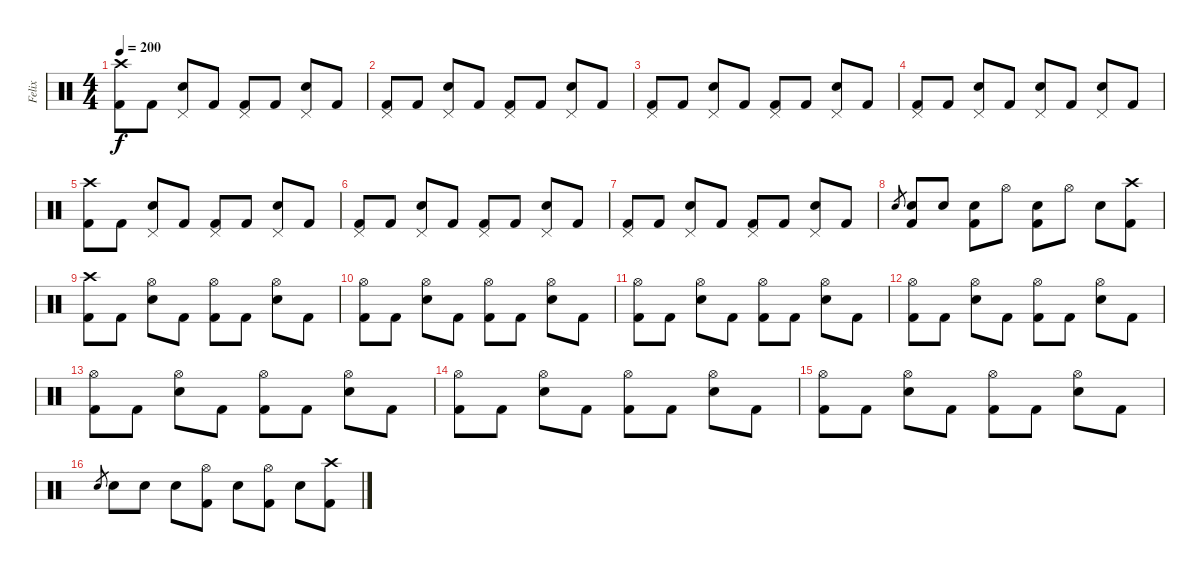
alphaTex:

\track ("Felix" "Felix") {instrument percussion}
\staff {score}
\articulation defaults
\ts (4 4)
\tempo 200
\clef neutral
\ks c
("Crash high (hit)" "Kick (hit) 2").8{dy f} "Kick (hit) 2".8 ("Pedal Hi-Hat (hit)" "Electric Snare (hit)").8 "Kick (hit) 2".8 ("Pedal Hi-Hat (hit)" "Kick (hit) 2").8 "Kick (hit) 2".8 ("Pedal Hi-Hat (hit)" "Electric Snare (hit)").8 "Kick (hit) 2".8 |
("Pedal Hi-Hat (hit)" "Kick (hit) 2").8 "Kick (hit) 2".8 ("Pedal Hi-Hat (hit)" "Electric Snare (hit)").8 "Kick (hit) 2".8 ("Pedal Hi-Hat (hit)" "Kick (hit) 2").8 "Kick (hit) 2".8 ("Pedal Hi-Hat (hit)" "Electric Snare (hit)").8 "Kick (hit) 2".8 |
("Pedal Hi-Hat (hit)" "Kick (hit) 2").8 "Kick (hit) 2".8 ("Pedal Hi-Hat (hit)" "Electric Snare (hit)").8 "Kick (hit) 2".8 ("Pedal Hi-Hat (hit)" "Kick (hit) 2").8 "Kick (hit) 2".8 ("Pedal Hi-Hat (hit)" "Electric Snare (hit)").8 "Kick (hit) 2".8 |
("Pedal Hi-Hat (hit)" "Kick (hit) 2").8 "Kick (hit) 2".8 ("Pedal Hi-Hat (hit)" "Electric Snare (hit)").8 "Kick (hit) 2".8 ("Pedal Hi-Hat (hit)" "Electric Snare (hit)").8 "Kick (hit) 2".8 ("Pedal Hi-Hat (hit)" "Electric Snare (hit)").8 "Kick (hit) 2".8 |
("Crash high (hit)" "Kick (hit) 2").8 "Kick (hit) 2".8 ("Pedal Hi-Hat (hit)" "Electric Snare (hit)").8 "Kick (hit) 2".8 ("Pedal Hi-Hat (hit)" "Kick (hit) 2").8 "Kick (hit) 2".8 ("Pedal Hi-Hat (hit)" "Electric Snare (hit)").8 "Kick (hit) 2".8 |
("Pedal Hi-Hat (hit)" "Kick (hit) 2").8 "Kick (hit) 2".8 ("Pedal Hi-Hat (hit)" "Electric Snare (hit)").8 "Kick (hit) 2".8 ("Pedal Hi-Hat (hit)" "Kick (hit) 2").8 "Kick (hit) 2".8 ("Pedal Hi-Hat (hit)" "Electric Snare (hit)").8 "Kick (hit) 2".8 |
("Pedal Hi-Hat (hit)" "Kick (hit) 2").8 "Kick (hit) 2".8 ("Pedal Hi-Hat (hit)" "Electric Snare (hit)").8 "Kick (hit) 2".8 ("Pedal Hi-Hat (hit)" "Kick (hit) 2").8 "Kick (hit) 2".8 ("Pedal Hi-Hat (hit)" "Electric Snare (hit)").8 "Kick (hit) 2".8 |
"Electric Snare (hit)".8{gr} ("Electric Snare (hit)" "Kick (hit) 2").8 "Electric Snare (hit)".8 ("Electric Snare (hit)" "Kick (hit) 2").8 "Hi-Hat (open)".8 ("Electric Snare (hit)" "Kick (hit) 2").8 "Hi-Hat (open)".8 "Electric Snare (hit)".8 ("Crash high (hit)" "Kick (hit) 2").8 |
("Crash high (hit)" "Kick (hit) 2").8 "Kick (hit) 2".8 ("Hi-Hat (open)" "Electric Snare (hit)").8 "Kick (hit) 2".8 ("Hi-Hat (open)" "Kick (hit) 2").8 "Kick (hit) 2".8 ("Hi-Hat (open)" "Electric Snare (hit)").8 "Kick (hit) 2".8 |
("Hi-Hat (open)" "Kick (hit) 2").8 "Kick (hit) 2".8 ("Hi-Hat (open)" "Electric Snare (hit)").8 "Kick (hit) 2".8 ("Hi-Hat (open)" "Kick (hit) 2").8 "Kick (hit) 2".8 ("Hi-Hat (open)" "Electric Snare (hit)").8 "Kick (hit) 2".8 |
("Hi-Hat (open)" "Kick (hit) 2").8 "Kick (hit) 2".8 ("Hi-Hat (open)" "Electric Snare (hit)").8 "Kick (hit) 2".8 ("Hi-Hat (open)" "Kick (hit) 2").8 "Kick (hit) 2".8 ("Hi-Hat (open)" "Electric Snare (hit)").8 "Kick (hit) 2".8 |
("Hi-Hat (open)" "Kick (hit) 2").8 "Kick (hit) 2".8 ("Hi-Hat (open)" "Electric Snare (hit)").8 "Kick (hit) 2".8 ("Hi-Hat (open)" "Kick (hit) 2").8 "Kick (hit) 2".8 ("Hi-Hat (open)" "Electric Snare (hit)").8 "Kick (hit) 2".8 |
("Hi-Hat (open)" "Kick (hit) 2").8 "Kick (hit) 2".8 ("Hi-Hat (open)" "Electric Snare (hit)").8 "Kick (hit) 2".8 ("Hi-Hat (open)" "Kick (hit) 2").8 "Kick (hit) 2".8 ("Hi-Hat (open)" "Electric Snare (hit)").8 "Kick (hit) 2".8 |
("Hi-Hat (open)" "Kick (hit) 2").8 "Kick (hit) 2".8 ("Hi-Hat (open)" "Electric Snare (hit)").8 "Kick (hit) 2".8 ("Hi-Hat (open)" "Kick (hit) 2").8 "Kick (hit) 2".8 ("Hi-Hat (open)" "Electric Snare (hit)").8 "Kick (hit) 2".8 |
("Hi-Hat (open)" "Kick (hit) 2").8 "Kick (hit) 2".8 ("Hi-Hat (open)" "Electric Snare (hit)").8 "Kick (hit) 2".8 ("Hi-Hat (open)" "Kick (hit) 2").8 "Kick (hit) 2".8 ("Hi-Hat (open)" "Electric Snare (hit)").8 "Kick (hit) 2".8 |
"Electric Snare (hit)".8{gr} "Electric Snare (hit)".8 "Electric Snare (hit)".8 "Electric Snare (hit)".8 ("Hi-Hat (open)" "Kick (hit) 2").8 "Electric Snare (hit)".8 ("Hi-Hat (open)" "Kick (hit) 2").8 "Electric Snare (hit)".8 ("Crash high (hit)" "Kick (hit) 2").8
